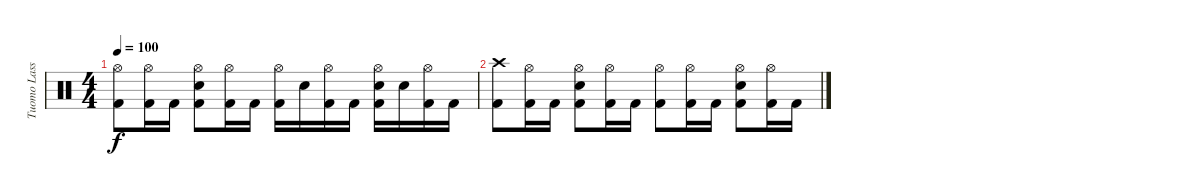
\track ("Tuomo Lassila" "Tuomo Lass") {instrument percussion}
\staff {score}
\articulation defaults
\ts (4 4)
\tempo 100
\clef neutral
\ks c
("Hi-Hat (open)" "Kick (hit) 2").8{dy f} ("Hi-Hat (open)" "Kick (hit) 2").16 "Kick (hit) 2".16 ("Hi-Hat (open)" "Electric Snare (hit)" "Kick (hit) 2").8 ("Hi-Hat (open)" "Kick (hit) 2").16 "Kick (hit) 2".16 ("Hi-Hat (open)" "Kick (hit) 2").16 "Electric Snare (hit)".16 ("Hi-Hat (open)" "Kick (hit) 2").16 "Kick (hit) 2".16 ("Hi-Hat (open)" "Electric Snare (hit)" "Kick (hit) 2").16 "Electric Snare (hit)".16 ("Hi-Hat (open)" "Kick (hit) 2").16 "Kick (hit) 2".16 |
("Crash high (hit)" "Kick (hit) 2").8 ("Hi-Hat (open)" "Kick (hit) 2").16 "Kick (hit) 2".16 ("Hi-Hat (open)" "Electric Snare (hit)" "Kick (hit) 2").8 ("Hi-Hat (open)" "Kick (hit) 2").16 "Kick (hit) 2".16 ("Hi-Hat (open)" "Kick (hit) 2").8 ("Hi-Hat (open)" "Kick (hit) 2").16 "Kick (hit) 2".16 ("Hi-Hat (open)" "Electric Snare (hit)" "Kick (hit) 2").8 ("Hi-Hat (open)" "Kick (hit) 2").16 "Kick (hit) 2".16
